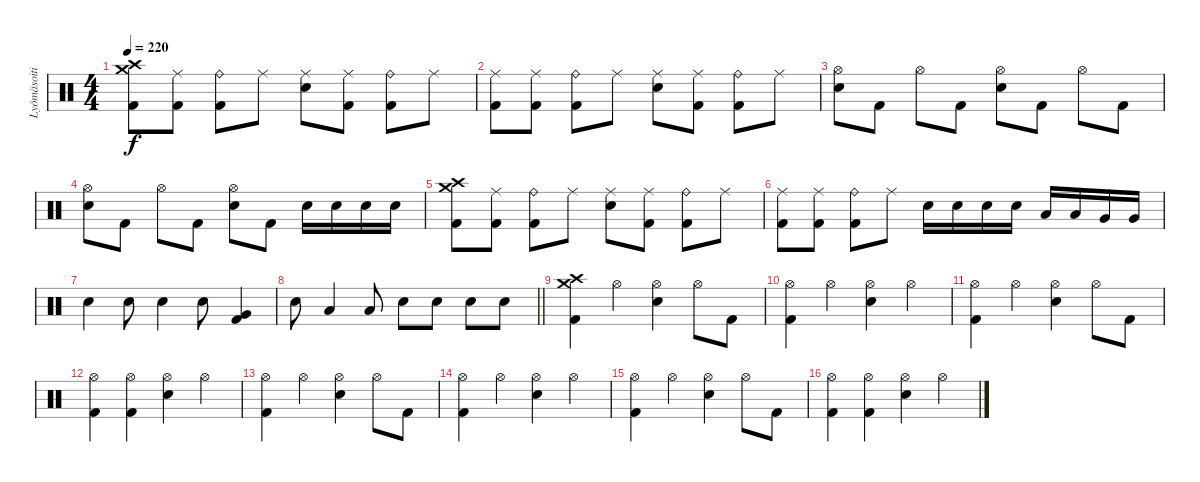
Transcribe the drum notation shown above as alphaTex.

\track ("Lyömäsoitin" "Lyömäsoiti") {instrument percussion}
\staff {score}
\articulation defaults
\ts (4 4)
\section ("" "")
\tempo 220
\clef neutral
\ks c
("Crash medium (hit)" "Crash high (hit)" "Kick (hit) 2").8{dy f} ("Ride (middle)" "Kick (hit) 2").8 ("Ride (bell)" "Kick (hit) 2").8 "Ride (middle)".8 ("Ride (middle)" "Electric Snare (hit)").8 ("Ride (middle)" "Kick (hit) 2").8 ("Ride (bell)" "Kick (hit) 2").8 "Ride (middle)".8 |
("Ride (middle)" "Kick (hit) 2").8 ("Ride (middle)" "Kick (hit) 2").8 ("Ride (bell)" "Kick (hit) 2").8 "Ride (middle)".8 ("Ride (middle)" "Electric Snare (hit)").8 ("Ride (middle)" "Kick (hit) 2").8 ("Ride (bell)" "Kick (hit) 2").8 "Ride (middle)".8 |
("Hi-Hat (open)" "Electric Snare (hit)").8 "Kick (hit) 2".8 "Hi-Hat (open)".8 "Kick (hit) 2".8 ("Hi-Hat (open)" "Electric Snare (hit)").8 "Kick (hit) 2".8 "Hi-Hat (open)".8 "Kick (hit) 2".8 |
("Hi-Hat (open)" "Electric Snare (hit)").8 "Kick (hit) 2".8 "Hi-Hat (open)".8 "Kick (hit) 2".8 ("Hi-Hat (open)" "Electric Snare (hit)").8 "Kick (hit) 2".8 "Electric Snare (hit)".16 "Electric Snare (hit)".16 "Electric Snare (hit)".16 "Electric Snare (hit)".16 |
("Crash medium (hit)" "Crash high (hit)" "Kick (hit) 2").8 ("Ride (middle)" "Kick (hit) 2").8 ("Ride (bell)" "Kick (hit) 2").8 "Ride (middle)".8 ("Ride (middle)" "Electric Snare (hit)").8 ("Ride (middle)" "Kick (hit) 2").8 ("Ride (bell)" "Kick (hit) 2").8 "Ride (middle)".8 |
("Ride (middle)" "Kick (hit) 2").8 ("Ride (middle)" "Kick (hit) 2").8 ("Ride (bell)" "Kick (hit) 2").8 "Ride (middle)".8 "Electric Snare (hit)".16 "Electric Snare (hit)".16 "Electric Snare (hit)".16 "Electric Snare (hit)".16 "Low Tom (hit)".16 "Low Tom (hit)".16 "Very Low Tom (hit)".16 "Very Low Tom (hit)".16 |
"Electric Snare (hit)".4 "Electric Snare (hit)".8 "Electric Snare (hit)".4 "Electric Snare (hit)".8 ("Very Low Tom (hit)" "Kick (hit) 2").4 |
\barLineRight lightlight "Electric Snare (hit)".8 "Low Tom (hit)".4 "Low Tom (hit)".8 "Electric Snare (hit)".8 "Electric Snare (hit)".8 "Electric Snare (hit)".8 "Electric Snare (hit)".8
|
\section ("" "")
("Crash medium (hit)" "Crash high (hit)" "Kick (hit) 2").4 "Hi-Hat (open)".4 ("Hi-Hat (open)" "Electric Snare (hit)").4 "Hi-Hat (open)".8 "Kick (hit) 2".8 |
("Hi-Hat (open)" "Kick (hit) 2").4 "Hi-Hat (open)".4 ("Hi-Hat (open)" "Electric Snare (hit)").4 "Hi-Hat (open)".4 |
("Hi-Hat (open)" "Kick (hit) 2").4 "Hi-Hat (open)".4 ("Hi-Hat (open)" "Electric Snare (hit)").4 "Hi-Hat (open)".8 "Kick (hit) 2".8 |
("Hi-Hat (open)" "Kick (hit) 2").4 ("Hi-Hat (open)" "Kick (hit) 2").4 ("Hi-Hat (open)" "Electric Snare (hit)").4 "Hi-Hat (open)".4 |
("Hi-Hat (open)" "Kick (hit) 2").4 "Hi-Hat (open)".4 ("Hi-Hat (open)" "Electric Snare (hit)").4 "Hi-Hat (open)".8 "Kick (hit) 2".8 |
("Hi-Hat (open)" "Kick (hit) 2").4 "Hi-Hat (open)".4 ("Hi-Hat (open)" "Electric Snare (hit)").4 "Hi-Hat (open)".4 |
("Hi-Hat (open)" "Kick (hit) 2").4 "Hi-Hat (open)".4 ("Hi-Hat (open)" "Electric Snare (hit)").4 "Hi-Hat (open)".8 "Kick (hit) 2".8 |
("Hi-Hat (open)" "Kick (hit) 2").4 ("Hi-Hat (open)" "Kick (hit) 2").4 ("Hi-Hat (open)" "Electric Snare (hit)").4 "Hi-Hat (open)".4
